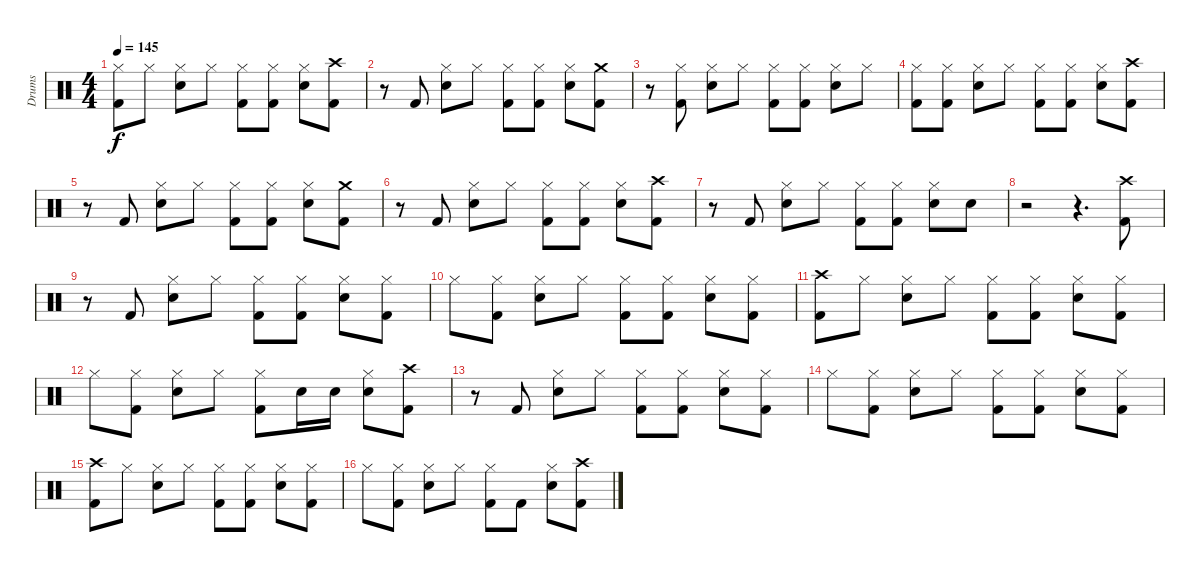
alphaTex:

\track ("Drums" "Drums") {instrument percussion}
\staff {score}
\articulation defaults
\ts (4 4)
\tempo 145
\clef neutral
\ks c
("Hi-Hat (closed)" "Kick (hit) 2").8{dy f} "Hi-Hat (closed)".8 ("Hi-Hat (closed)" "Snare (hit) 2").8 "Hi-Hat (closed)".8 ("Hi-Hat (closed)" "Kick (hit) 2").8 ("Hi-Hat (closed)" "Kick (hit) 2").8 ("Hi-Hat (closed)" "Snare (hit) 2").8 ("Crash high (hit)" "Kick (hit) 2").8 |
r.8 "Kick (hit) 2".8 ("Hi-Hat (closed)" "Snare (hit) 2").8 "Hi-Hat (closed)".8 ("Hi-Hat (closed)" "Kick (hit) 2").8 ("Hi-Hat (closed)" "Kick (hit) 2").8 ("Hi-Hat (closed)" "Snare (hit) 2").8 ("Crash medium (hit)" "Kick (hit) 2").8 |
r.8 ("Hi-Hat (closed)" "Kick (hit) 2").8 ("Hi-Hat (closed)" "Snare (hit) 2").8 "Hi-Hat (closed)".8 ("Hi-Hat (closed)" "Kick (hit) 2").8 ("Hi-Hat (closed)" "Kick (hit) 2").8 ("Hi-Hat (closed)" "Snare (hit) 2").8 "Hi-Hat (closed)".8 |
("Hi-Hat (closed)" "Kick (hit) 2").8 ("Hi-Hat (closed)" "Kick (hit) 2").8 ("Hi-Hat (closed)" "Snare (hit) 2").8 "Hi-Hat (closed)".8 ("Hi-Hat (closed)" "Kick (hit) 2").8 ("Hi-Hat (closed)" "Kick (hit) 2").8 ("Hi-Hat (closed)" "Snare (hit) 2").8 ("Crash high (hit)" "Kick (hit) 2").8 |
r.8 "Kick (hit) 2".8 ("Hi-Hat (closed)" "Snare (hit) 2").8 "Hi-Hat (closed)".8 ("Hi-Hat (closed)" "Kick (hit) 2").8 ("Hi-Hat (closed)" "Kick (hit) 2").8 ("Hi-Hat (closed)" "Snare (hit) 2").8 ("Crash medium (hit)" "Kick (hit) 2").8 |
r.8 "Kick (hit) 2".8 ("Hi-Hat (closed)" "Snare (hit) 2").8 "Hi-Hat (closed)".8 ("Hi-Hat (closed)" "Kick (hit) 2").8 ("Hi-Hat (closed)" "Kick (hit) 2").8 ("Hi-Hat (closed)" "Snare (hit) 2").8 ("Crash high (hit)" "Kick (hit) 2").8 |
r.8 "Kick (hit) 2".8 ("Hi-Hat (closed)" "Snare (hit) 2").8 "Hi-Hat (closed)".8 ("Hi-Hat (closed)" "Kick (hit) 2").8 ("Hi-Hat (closed)" "Kick (hit) 2").8 ("Hi-Hat (closed)" "Snare (hit) 2").8 "Snare (hit) 2".8 |
r.2 r.4{d} ("Crash high (hit)" "Kick (hit) 2").8 |
r.8 "Kick (hit) 2".8 ("Hi-Hat (closed)" "Snare (hit) 2").8 "Hi-Hat (closed)".8 ("Hi-Hat (closed)" "Kick (hit) 2").8 ("Hi-Hat (closed)" "Kick (hit) 2").8 ("Hi-Hat (closed)" "Snare (hit) 2").8 ("Hi-Hat (closed)" "Kick (hit) 2").8 |
"Hi-Hat (closed)".8 ("Hi-Hat (closed)" "Kick (hit) 2").8 ("Hi-Hat (closed)" "Snare (hit) 2").8 "Hi-Hat (closed)".8 ("Hi-Hat (closed)" "Kick (hit) 2").8 ("Hi-Hat (closed)" "Kick (hit) 2").8 ("Hi-Hat (closed)" "Snare (hit) 2").8 ("Hi-Hat (closed)" "Kick (hit) 2").8 |
("Crash high (hit)" "Kick (hit) 2").8 "Hi-Hat (closed)".8 ("Hi-Hat (closed)" "Snare (hit) 2").8 "Hi-Hat (closed)".8 ("Hi-Hat (closed)" "Kick (hit) 2").8 ("Hi-Hat (closed)" "Kick (hit) 2").8 ("Hi-Hat (closed)" "Snare (hit) 2").8 ("Hi-Hat (closed)" "Kick (hit) 2").8 |
"Hi-Hat (closed)".8 ("Hi-Hat (closed)" "Kick (hit) 2").8 ("Hi-Hat (closed)" "Snare (hit) 2").8 "Hi-Hat (closed)".8 ("Hi-Hat (closed)" "Kick (hit) 2").8 "Snare (hit) 2".16 "Snare (hit) 2".16 ("Hi-Hat (closed)" "Snare (hit) 2").8 ("Crash high (hit)" "Kick (hit) 2").8 |
r.8 "Kick (hit) 2".8 ("Hi-Hat (closed)" "Snare (hit) 2").8 "Hi-Hat (closed)".8 ("Hi-Hat (closed)" "Kick (hit) 2").8 ("Hi-Hat (closed)" "Kick (hit) 2").8 ("Hi-Hat (closed)" "Snare (hit) 2").8 ("Hi-Hat (closed)" "Kick (hit) 2").8 |
"Hi-Hat (closed)".8 ("Hi-Hat (closed)" "Kick (hit) 2").8 ("Hi-Hat (closed)" "Snare (hit) 2").8 "Hi-Hat (closed)".8 ("Hi-Hat (closed)" "Kick (hit) 2").8 ("Hi-Hat (closed)" "Kick (hit) 2").8 ("Hi-Hat (closed)" "Snare (hit) 2").8 ("Hi-Hat (closed)" "Kick (hit) 2").8 |
("Crash high (hit)" "Kick (hit) 2").8 "Hi-Hat (closed)".8 ("Hi-Hat (closed)" "Snare (hit) 2").8 "Hi-Hat (closed)".8 ("Hi-Hat (closed)" "Kick (hit) 2").8 ("Hi-Hat (closed)" "Kick (hit) 2").8 ("Hi-Hat (closed)" "Snare (hit) 2").8 ("Hi-Hat (closed)" "Kick (hit) 2").8 |
"Hi-Hat (closed)".8 ("Hi-Hat (closed)" "Kick (hit) 2").8 ("Hi-Hat (closed)" "Snare (hit) 2").8 "Hi-Hat (closed)".8 ("Hi-Hat (closed)" "Kick (hit) 2").8 "Kick (hit) 2".8 ("Hi-Hat (closed)" "Snare (hit) 2").8 ("Crash high (hit)" "Kick (hit) 2").8
